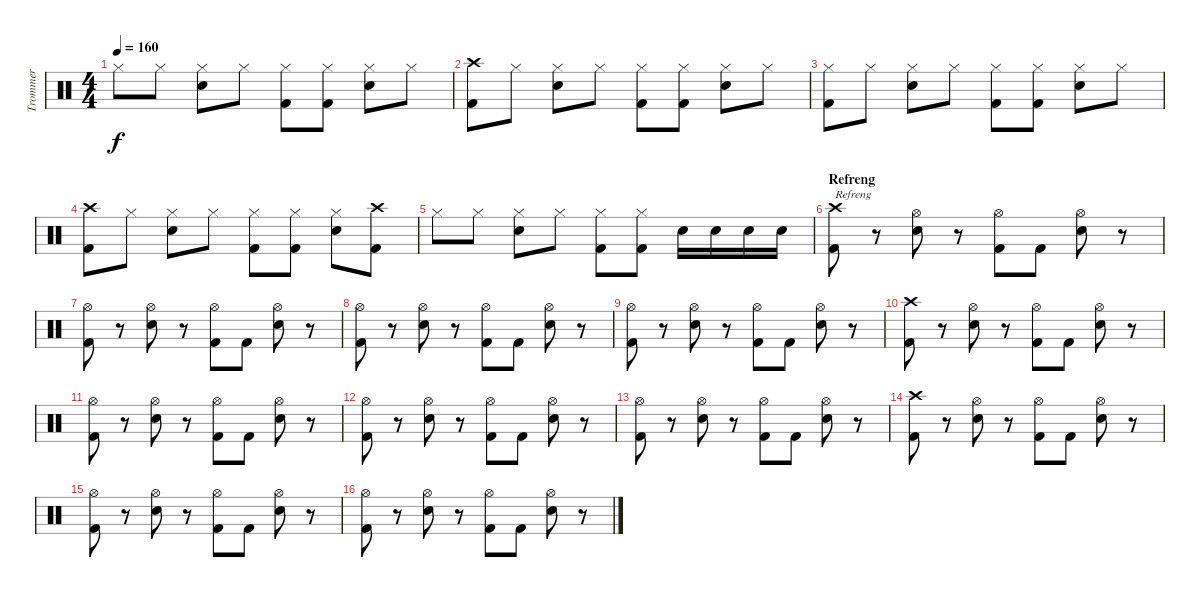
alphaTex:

\track ("Trommer" "Trommer") {instrument percussion}
\staff {score}
\articulation defaults
\ts (4 4)
\tempo 160
\clef neutral
\ks c "Hi-Hat (closed)".8{dy f} "Hi-Hat (closed)".8
("Hi-Hat (closed)" "Electric Snare (hit)").8 "Hi-Hat (closed)".8 ("Hi-Hat (closed)" "Kick (hit) 2").8 ("Hi-Hat (closed)" "Kick (hit) 2").8 ("Hi-Hat (closed)" "Electric Snare (hit)").8 "Hi-Hat (closed)".8 |
("Crash high (hit)" "Kick (hit) 2").8 "Hi-Hat (closed)".8 ("Hi-Hat (closed)" "Electric Snare (hit)").8 "Hi-Hat (closed)".8 ("Hi-Hat (closed)" "Kick (hit) 2").8 ("Hi-Hat (closed)" "Kick (hit) 2").8 ("Hi-Hat (closed)" "Electric Snare (hit)").8 "Hi-Hat (closed)".8 |
("Hi-Hat (closed)" "Kick (hit) 2").8 "Hi-Hat (closed)".8 ("Hi-Hat (closed)" "Electric Snare (hit)").8 "Hi-Hat (closed)".8 ("Hi-Hat (closed)" "Kick (hit) 2").8 ("Hi-Hat (closed)" "Kick (hit) 2").8 ("Hi-Hat (closed)" "Electric Snare (hit)").8 "Hi-Hat (closed)".8 |
("Crash high (hit)" "Kick (hit) 2").8 "Hi-Hat (closed)".8 ("Hi-Hat (closed)" "Electric Snare (hit)").8 "Hi-Hat (closed)".8 ("Hi-Hat (closed)" "Kick (hit) 2").8 ("Hi-Hat (closed)" "Kick (hit) 2").8 ("Hi-Hat (closed)" "Electric Snare (hit)").8 ("Crash high (hit)" "Kick (hit) 2").8 |
"Hi-Hat (closed)".8 "Hi-Hat (closed)".8 ("Hi-Hat (closed)" "Electric Snare (hit)").8 "Hi-Hat (closed)".8 ("Hi-Hat (closed)" "Kick (hit) 2").8 ("Hi-Hat (closed)" "Kick (hit) 2").8 "Electric Snare (hit)".16 "Electric Snare (hit)".16 "Electric Snare (hit)".16 "Electric Snare (hit)".16 |
\section ("" "Refreng")
("Crash high (hit)" "Kick (hit) 2").8{txt "Refreng"} r.8 ("Hi-Hat (open)" "Electric Snare (hit)").8 r.8 ("Hi-Hat (open)" "Kick (hit) 2").8 "Kick (hit) 2".8 ("Hi-Hat (open)" "Electric Snare (hit)").8 r.8 |
("Hi-Hat (open)" "Kick (hit) 2").8 r.8 ("Hi-Hat (open)" "Electric Snare (hit)").8 r.8 ("Hi-Hat (open)" "Kick (hit) 2").8 "Kick (hit) 2".8 ("Hi-Hat (open)" "Electric Snare (hit)").8 r.8 |
("Hi-Hat (open)" "Kick (hit) 2").8 r.8 ("Hi-Hat (open)" "Electric Snare (hit)").8 r.8 ("Hi-Hat (open)" "Kick (hit) 2").8 "Kick (hit) 2".8 ("Hi-Hat (open)" "Electric Snare (hit)").8 r.8 |
("Hi-Hat (open)" "Kick (hit) 2").8 r.8 ("Hi-Hat (open)" "Electric Snare (hit)").8 r.8 ("Hi-Hat (open)" "Kick (hit) 2").8 "Kick (hit) 2".8 ("Hi-Hat (open)" "Electric Snare (hit)").8 r.8 |
("Crash high (hit)" "Kick (hit) 2").8 r.8 ("Hi-Hat (open)" "Electric Snare (hit)").8 r.8 ("Hi-Hat (open)" "Kick (hit) 2").8 "Kick (hit) 2".8 ("Hi-Hat (open)" "Electric Snare (hit)").8 r.8 |
("Hi-Hat (open)" "Kick (hit) 2").8 r.8 ("Hi-Hat (open)" "Electric Snare (hit)").8 r.8 ("Hi-Hat (open)" "Kick (hit) 2").8 "Kick (hit) 2".8 ("Hi-Hat (open)" "Electric Snare (hit)").8 r.8 |
("Hi-Hat (open)" "Kick (hit) 2").8 r.8 ("Hi-Hat (open)" "Electric Snare (hit)").8 r.8 ("Hi-Hat (open)" "Kick (hit) 2").8 "Kick (hit) 2".8 ("Hi-Hat (open)" "Electric Snare (hit)").8 r.8 |
("Hi-Hat (open)" "Kick (hit) 2").8 r.8 ("Hi-Hat (open)" "Electric Snare (hit)").8 r.8 ("Hi-Hat (open)" "Kick (hit) 2").8 "Kick (hit) 2".8 ("Hi-Hat (open)" "Electric Snare (hit)").8 r.8 |
("Crash high (hit)" "Kick (hit) 2").8 r.8 ("Hi-Hat (open)" "Electric Snare (hit)").8 r.8 ("Hi-Hat (open)" "Kick (hit) 2").8 "Kick (hit) 2".8 ("Hi-Hat (open)" "Electric Snare (hit)").8 r.8 |
("Hi-Hat (open)" "Kick (hit) 2").8 r.8 ("Hi-Hat (open)" "Electric Snare (hit)").8 r.8 ("Hi-Hat (open)" "Kick (hit) 2").8 "Kick (hit) 2".8 ("Hi-Hat (open)" "Electric Snare (hit)").8 r.8 |
("Hi-Hat (open)" "Kick (hit) 2").8 r.8 ("Hi-Hat (open)" "Electric Snare (hit)").8 r.8 ("Hi-Hat (open)" "Kick (hit) 2").8 "Kick (hit) 2".8 ("Hi-Hat (open)" "Electric Snare (hit)").8 r.8
